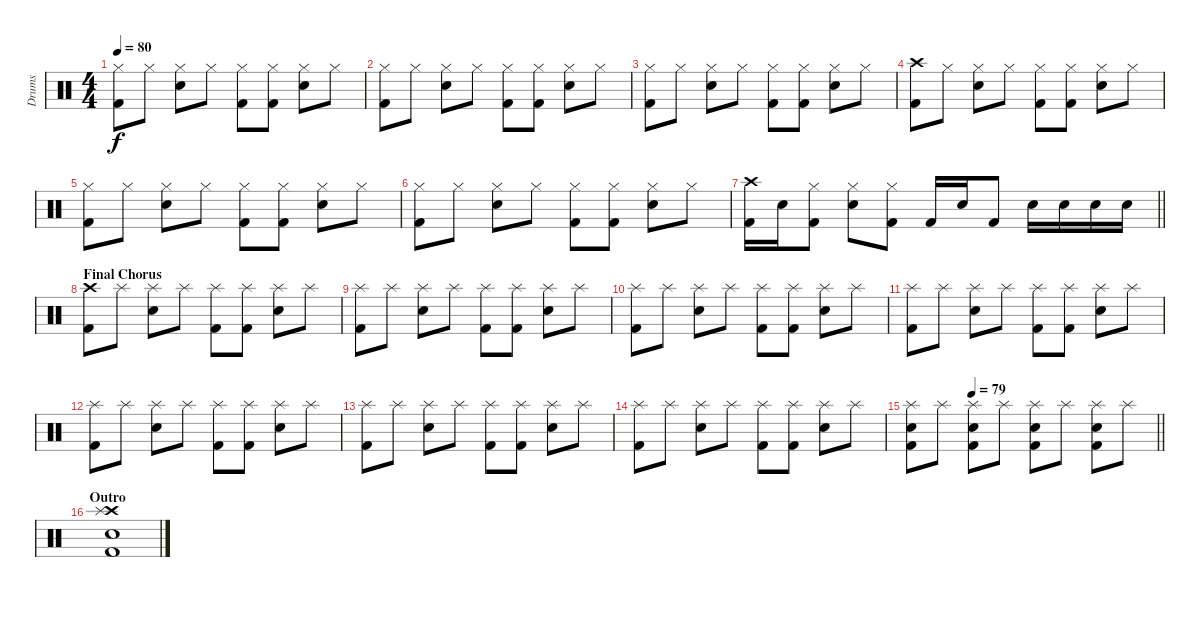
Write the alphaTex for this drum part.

\track ("Drums" "Drums") {instrument percussion}
\staff {score}
\articulation defaults
\ts (4 4)
\tempo 80
\clef neutral
\ks c
("Hi-Hat (closed)" "Kick (hit) 2").8{dy f} "Hi-Hat (closed)".8 ("Hi-Hat (closed)" "Snare (hit) 2").8 "Hi-Hat (closed)".8 ("Hi-Hat (closed)" "Kick (hit) 2").8 ("Hi-Hat (closed)" "Kick (hit) 2").8 ("Hi-Hat (closed)" "Snare (hit) 2").8 "Hi-Hat (closed)".8 |
("Hi-Hat (closed)" "Kick (hit) 2").8 "Hi-Hat (closed)".8 ("Hi-Hat (closed)" "Snare (hit) 2").8 "Hi-Hat (closed)".8 ("Hi-Hat (closed)" "Kick (hit) 2").8 ("Hi-Hat (closed)" "Kick (hit) 2").8 ("Hi-Hat (closed)" "Snare (hit) 2").8 "Hi-Hat (closed)".8 |
("Hi-Hat (closed)" "Kick (hit) 2").8 "Hi-Hat (closed)".8 ("Hi-Hat (closed)" "Snare (hit) 2").8 "Hi-Hat (closed)".8 ("Hi-Hat (closed)" "Kick (hit) 2").8 ("Hi-Hat (closed)" "Kick (hit) 2").8 ("Hi-Hat (closed)" "Snare (hit) 2").8 "Hi-Hat (closed)".8 |
("Crash high (hit)" "Kick (hit) 2").8 "Hi-Hat (closed)".8 ("Hi-Hat (closed)" "Snare (hit) 2").8 "Hi-Hat (closed)".8 ("Hi-Hat (closed)" "Kick (hit) 2").8 ("Hi-Hat (closed)" "Kick (hit) 2").8 ("Hi-Hat (closed)" "Snare (hit) 2").8 "Hi-Hat (closed)".8 |
("Hi-Hat (closed)" "Kick (hit) 2").8 "Hi-Hat (closed)".8 ("Hi-Hat (closed)" "Snare (hit) 2").8 "Hi-Hat (closed)".8 ("Hi-Hat (closed)" "Kick (hit) 2").8 ("Hi-Hat (closed)" "Kick (hit) 2").8 ("Hi-Hat (closed)" "Snare (hit) 2").8 "Hi-Hat (closed)".8 |
("Hi-Hat (closed)" "Kick (hit) 2").8 "Hi-Hat (closed)".8 ("Hi-Hat (closed)" "Snare (hit) 2").8 "Hi-Hat (closed)".8 ("Hi-Hat (closed)" "Kick (hit) 2").8 ("Hi-Hat (closed)" "Kick (hit) 2").8 ("Hi-Hat (closed)" "Snare (hit) 2").8 "Hi-Hat (closed)".8 |
\barLineRight lightlight
("Crash high (hit)" "Kick (hit) 2").16 "Snare (hit) 2".16 ("Hi-Hat (closed)" "Kick (hit) 2").8 ("Hi-Hat (closed)" "Snare (hit) 2").8 ("Hi-Hat (closed)" "Kick (hit) 2").8 "Kick (hit) 2".16 "Snare (hit) 2".16 "Kick (hit) 2".8 "Snare (hit) 2".16 "Snare (hit) 2".16 "Snare (hit) 2".16 "Snare (hit) 2".16 |
\section ("" "Final Chorus")
("Crash high (hit)" "Kick (hit) 2").8 "Splash (hit)".8 ("Splash (hit)" "Snare (hit) 2").8 "Splash (hit)".8 ("Splash (hit)" "Kick (hit) 2").8 ("Splash (hit)" "Kick (hit) 2").8 ("Splash (hit)" "Snare (hit) 2").8 "Splash (hit)".8 |
("Splash (hit)" "Kick (hit) 2").8 "Splash (hit)".8 ("Splash (hit)" "Snare (hit) 2").8 "Splash (hit)".8 ("Splash (hit)" "Kick (hit) 2").8 ("Splash (hit)" "Kick (hit) 2").8 ("Splash (hit)" "Snare (hit) 2").8 "Splash (hit)".8 |
("Splash (hit)" "Kick (hit) 2").8 "Splash (hit)".8 ("Splash (hit)" "Snare (hit) 2").8 "Splash (hit)".8 ("Splash (hit)" "Kick (hit) 2").8 ("Splash (hit)" "Kick (hit) 2").8 ("Splash (hit)" "Snare (hit) 2").8 "Splash (hit)".8 |
("Splash (hit)" "Kick (hit) 2").8 "Splash (hit)".8 ("Splash (hit)" "Snare (hit) 2").8 "Splash (hit)".8 ("Splash (hit)" "Kick (hit) 2").8 ("Splash (hit)" "Kick (hit) 2").8 ("Splash (hit)" "Snare (hit) 2").8 "Splash (hit)".8 |
("Splash (hit)" "Kick (hit) 2").8 "Splash (hit)".8 ("Splash (hit)" "Snare (hit) 2").8 "Splash (hit)".8 ("Splash (hit)" "Kick (hit) 2").8 ("Splash (hit)" "Kick (hit) 2").8 ("Splash (hit)" "Snare (hit) 2").8 "Splash (hit)".8 |
("Splash (hit)" "Kick (hit) 2").8 "Splash (hit)".8 ("Splash (hit)" "Snare (hit) 2").8 "Splash (hit)".8 ("Splash (hit)" "Kick (hit) 2").8 ("Splash (hit)" "Kick (hit) 2").8 ("Splash (hit)" "Snare (hit) 2").8 "Splash (hit)".8 |
("Splash (hit)" "Kick (hit) 2").8 "Splash (hit)".8 ("Splash (hit)" "Snare (hit) 2").8 "Splash (hit)".8 ("Splash (hit)" "Kick (hit) 2").8 ("Splash (hit)" "Kick (hit) 2").8 ("Splash (hit)" "Snare (hit) 2").8 "Splash (hit)".8 |
\tempo (79 0.25)
\barLineRight lightlight
("Splash (hit)" "Snare (hit) 2" "Kick (hit) 2").8 "Splash (hit)".8 ("Splash (hit)" "Snare (hit) 2" "Kick (hit) 2").8 "Splash (hit)".8 ("Splash (hit)" "Snare (hit) 2" "Kick (hit) 2").8 "Splash (hit)".8 ("Splash (hit)" "Snare (hit) 2" "Kick (hit) 2").8 "Splash (hit)".8 |
\section ("" "Outro")
("Crash high (hit)" "Splash (hit)" "Snare (hit) 2" "Kick (hit) 2").1
